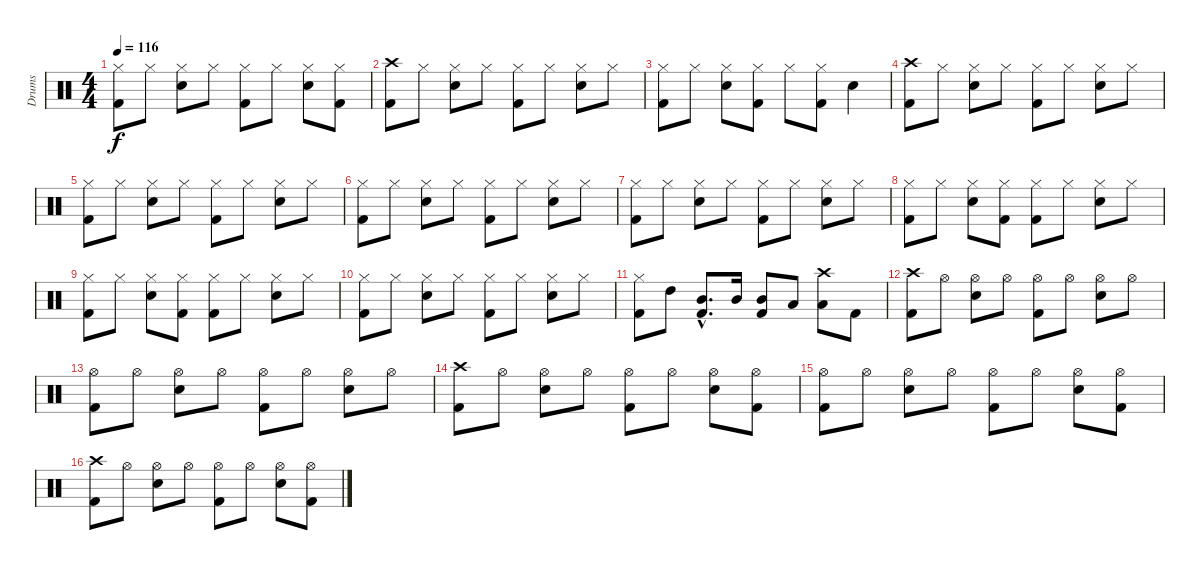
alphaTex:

\track ("Drums" "Drums") {instrument percussion}
\staff {score}
\articulation defaults
\ts (4 4)
\tempo 116
\clef neutral
\ks c
("Hi-Hat (closed)" "Kick (hit) 2").8{dy f} "Hi-Hat (closed)".8 ("Hi-Hat (closed)" "Snare (hit) 2").8 "Hi-Hat (closed)".8 ("Hi-Hat (closed)" "Kick (hit) 2").8 "Hi-Hat (closed)".8 ("Hi-Hat (closed)" "Snare (hit) 2").8 ("Hi-Hat (closed)" "Kick (hit) 2").8 |
("Crash high (hit)" "Kick (hit) 2").8 "Hi-Hat (closed)".8 ("Hi-Hat (closed)" "Snare (hit) 2").8 "Hi-Hat (closed)".8 ("Hi-Hat (closed)" "Kick (hit) 2").8 "Hi-Hat (closed)".8 ("Hi-Hat (closed)" "Snare (hit) 2").8 "Hi-Hat (closed)".8 |
("Hi-Hat (closed)" "Kick (hit) 2").8 "Hi-Hat (closed)".8 ("Hi-Hat (closed)" "Snare (hit) 2").8 ("Hi-Hat (closed)" "Kick (hit) 2").8 "Hi-Hat (closed)".8 ("Hi-Hat (closed)" "Kick (hit) 2").8 "Snare (hit) 2".4 |
("Crash high (hit)" "Kick (hit) 2").8 "Hi-Hat (closed)".8 ("Hi-Hat (closed)" "Snare (hit) 2").8 "Hi-Hat (closed)".8 ("Hi-Hat (closed)" "Kick (hit) 2").8 "Hi-Hat (closed)".8 ("Hi-Hat (closed)" "Snare (hit) 2").8 "Hi-Hat (closed)".8 |
("Hi-Hat (closed)" "Kick (hit) 2").8 "Hi-Hat (closed)".8 ("Hi-Hat (closed)" "Snare (hit) 2").8 "Hi-Hat (closed)".8 ("Hi-Hat (closed)" "Kick (hit) 2").8 "Hi-Hat (closed)".8 ("Hi-Hat (closed)" "Snare (hit) 2").8 "Hi-Hat (closed)".8 |
("Hi-Hat (closed)" "Kick (hit) 2").8 "Hi-Hat (closed)".8 ("Hi-Hat (closed)" "Snare (hit) 2").8 "Hi-Hat (closed)".8 ("Hi-Hat (closed)" "Kick (hit) 2").8 "Hi-Hat (closed)".8 ("Hi-Hat (closed)" "Snare (hit) 2").8 "Hi-Hat (closed)".8 |
("Hi-Hat (closed)" "Kick (hit) 2").8 "Hi-Hat (closed)".8 ("Hi-Hat (closed)" "Snare (hit) 2").8 "Hi-Hat (closed)".8 ("Hi-Hat (closed)" "Kick (hit) 2").8 "Hi-Hat (closed)".8 ("Hi-Hat (closed)" "Snare (hit) 2").8 "Hi-Hat (closed)".8 |
("Hi-Hat (closed)" "Kick (hit) 2").8 "Hi-Hat (closed)".8 ("Hi-Hat (closed)" "Snare (hit) 2").8 ("Hi-Hat (closed)" "Kick (hit) 2").8 ("Hi-Hat (closed)" "Kick (hit) 2").8 "Hi-Hat (closed)".8 ("Hi-Hat (closed)" "Snare (hit) 2").8 "Hi-Hat (closed)".8 |
("Hi-Hat (closed)" "Kick (hit) 2").8 "Hi-Hat (closed)".8 ("Hi-Hat (closed)" "Snare (hit) 2").8 ("Hi-Hat (closed)" "Kick (hit) 2").8 ("Hi-Hat (closed)" "Kick (hit) 2").8 "Hi-Hat (closed)".8 ("Hi-Hat (closed)" "Snare (hit) 2").8 "Hi-Hat (closed)".8 |
("Hi-Hat (closed)" "Kick (hit) 2").8 "Hi-Hat (closed)".8 ("Hi-Hat (closed)" "Snare (hit) 2").8 "Hi-Hat (closed)".8 ("Hi-Hat (closed)" "Kick (hit) 2").8 "Hi-Hat (closed)".8 ("Hi-Hat (closed)" "Snare (hit) 2").8 "Hi-Hat (closed)".8 |
("Hi-Hat (closed)" "Kick (hit) 2").8 "High Tom (hit)".8 ("Mid Tom (hit)"{hac} "Kick (hit) 2"{hac}).8{d} "Mid Tom (hit)".16 ("Mid Tom (hit)" "Kick (hit) 2").8 "Low Tom (hit)".8 ("Crash high (hit)" "Low Tom (hit)").8 "Kick (hit) 2".8 |
("Crash high (hit)" "Kick (hit) 2").8 "Hi-Hat (open)".8 ("Hi-Hat (open)" "Snare (hit) 2").8 "Hi-Hat (open)".8 ("Hi-Hat (open)" "Kick (hit) 2").8 "Hi-Hat (open)".8 ("Hi-Hat (open)" "Snare (hit) 2").8 "Hi-Hat (open)".8 |
("Hi-Hat (open)" "Kick (hit) 2").8 "Hi-Hat (open)".8 ("Hi-Hat (open)" "Snare (hit) 2").8 "Hi-Hat (open)".8 ("Hi-Hat (open)" "Kick (hit) 2").8 "Hi-Hat (open)".8 ("Hi-Hat (open)" "Snare (hit) 2").8 "Hi-Hat (open)".8 |
("Crash high (hit)" "Kick (hit) 2").8 "Hi-Hat (open)".8 ("Hi-Hat (open)" "Snare (hit) 2").8 "Hi-Hat (open)".8 ("Hi-Hat (open)" "Kick (hit) 2").8 "Hi-Hat (open)".8 ("Hi-Hat (open)" "Snare (hit) 2").8 ("Hi-Hat (open)" "Kick (hit) 2").8 |
("Hi-Hat (open)" "Kick (hit) 2").8 "Hi-Hat (open)".8 ("Hi-Hat (open)" "Snare (hit) 2").8 "Hi-Hat (open)".8 ("Hi-Hat (open)" "Kick (hit) 2").8 "Hi-Hat (open)".8 ("Hi-Hat (open)" "Snare (hit) 2").8 ("Hi-Hat (open)" "Kick (hit) 2").8 |
("Crash high (hit)" "Kick (hit) 2").8 "Hi-Hat (open)".8 ("Hi-Hat (open)" "Snare (hit) 2").8 "Hi-Hat (open)".8 ("Hi-Hat (open)" "Kick (hit) 2").8 "Hi-Hat (open)".8 ("Hi-Hat (open)" "Snare (hit) 2").8 ("Hi-Hat (open)" "Kick (hit) 2").8
